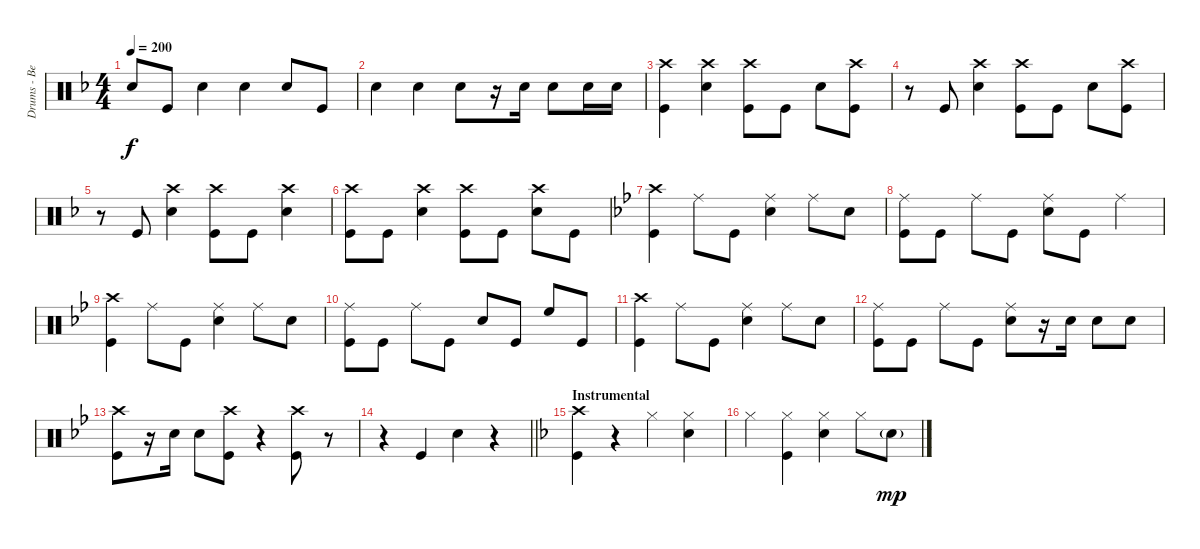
\track ("Drums - Ben Johnston" "Drums - Be") {instrument percussion}
\staff {score}
\articulation defaults
\ts (4 4)
\tempo 200
\clef neutral
\ks f "Snare (hit) 2".8{dy f} "Kick (hit)".8 "Snare (hit) 2".4 "Snare (hit) 2".4 "Snare (hit) 2".8 "Kick (hit)".8
|
"Snare (hit) 2".4 "Snare (hit) 2".4 "Snare (hit) 2".8 r.16 "Snare (hit) 2".16 "Snare (hit) 2".8 "Snare (hit) 2".16 "Snare (hit) 2".16 |
("Crash high (hit)" "Kick (hit)").4 ("Crash high (hit)" "Snare (hit) 2").4 ("Crash high (hit)" "Kick (hit)").8 "Kick (hit)".8 "Snare (hit) 2".8 ("Crash high (hit)" "Kick (hit)").8 |
r.8 "Kick (hit)".8 ("Crash high (hit)" "Snare (hit) 2").4 ("Crash high (hit)" "Kick (hit)").8 "Kick (hit)".8 "Snare (hit) 2".8 ("Crash high (hit)" "Kick (hit)").8 |
r.8 "Kick (hit)".8 ("Crash high (hit)" "Snare (hit) 2").4 ("Crash high (hit)" "Kick (hit)").8 "Kick (hit)".8 ("Crash high (hit)" "Snare (hit) 2").4 |
("Crash high (hit)" "Kick (hit)").8 "Kick (hit)".8 ("Crash high (hit)" "Snare (hit) 2").4 ("Crash high (hit)" "Kick (hit)").8 "Kick (hit)".8 ("Crash high (hit)" "Snare (hit) 2").8 "Kick (hit)".8 |
\ks bb
("Crash high (hit)" "Kick (hit)").4 "Ride (middle)".8 "Kick (hit)".8 ("Ride (middle)" "Snare (hit) 2").4 "Ride (middle)".8 "Snare (hit) 2".8 |
("Ride (middle)" "Kick (hit)").8 "Kick (hit)".8 "Ride (middle)".8 "Kick (hit)".8 ("Ride (middle)" "Snare (hit) 2").8 "Kick (hit)".8 "Ride (middle)".4 |
("Crash high (hit)" "Kick (hit)").4 "Ride (middle)".8 "Kick (hit)".8 ("Ride (middle)" "Snare (hit) 2").4 "Ride (middle)".8 "Snare (hit) 2".8 |
("Ride (middle)" "Kick (hit)").8 "Kick (hit)".8 "Ride (middle)".8 "Kick (hit)".8 "Snare (hit) 2".8 "Kick (hit)".8 "High Floor Tom (hit)".8 "Kick (hit)".8 |
("Crash high (hit)" "Kick (hit)").4 "Ride (middle)".8 "Kick (hit)".8 ("Ride (middle)" "Snare (hit) 2").4 "Ride (middle)".8 "Snare (hit) 2".8 |
("Ride (middle)" "Kick (hit)").8 "Kick (hit)".8 "Ride (middle)".8 "Kick (hit)".8 ("Ride (middle)" "Snare (hit) 2").8 r.16 "Snare (hit) 2".16 "Snare (hit) 2".8 "Snare (hit) 2".8 |
("Crash high (hit)" "Kick (hit)").8 r.16 "Snare (hit) 2".16 "Snare (hit) 2".8 ("Crash high (hit)" "Kick (hit)").8 r.4 ("Crash high (hit)" "Kick (hit)").8 r.8 |
\barLineRight lightlight
r.4 "Kick (hit)".4 "Snare (hit) 2".4 r.4 |
\section ("" "Instrumental")
\ks f
("Crash high (hit)" "Kick (hit)").4 r.4 "Hi-Hat (closed)".4 ("Hi-Hat (closed)" "Snare (hit) 2").4 |
"Hi-Hat (closed)".4 ("Hi-Hat (closed)" "Kick (hit)").4 ("Hi-Hat (closed)" "Snare (hit) 2").4 "Hi-Hat (closed)".8 "Snare (hit) 2"{g}.8{dy mp}
